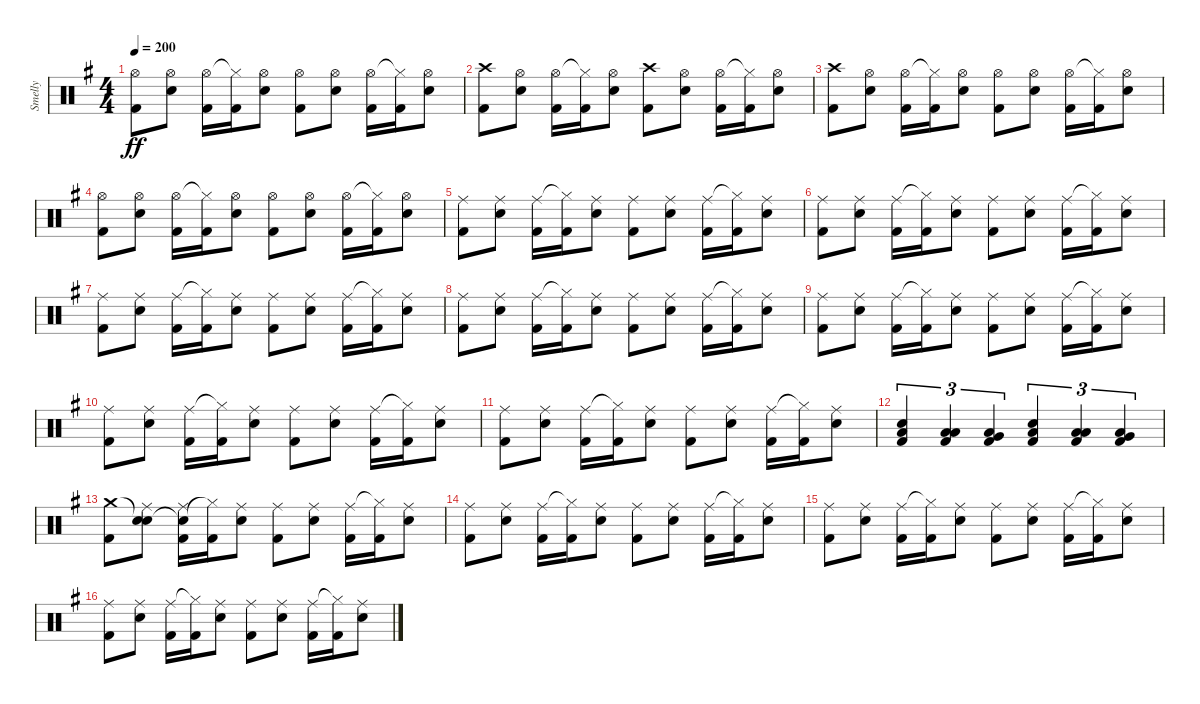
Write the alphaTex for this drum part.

\track ("Smelly" "Smelly") {instrument percussion}
\staff {score}
\articulation defaults
\ts (4 4)
\tempo 200
\clef neutral
\ks eminor
("Hi-Hat (open)" "Kick (hit) 2").8{dy ff} ("Hi-Hat (open)" "Electric Snare (hit)").8 ("Hi-Hat (open)" "Kick (hit) 2").16 ("Hi-Hat (closed)"{t} "Kick (hit) 2").16 ("Hi-Hat (open)" "Electric Snare (hit)").8 ("Hi-Hat (open)" "Kick (hit) 2").8 ("Hi-Hat (open)" "Electric Snare (hit)").8 ("Hi-Hat (open)" "Kick (hit) 2").16 ("Hi-Hat (closed)"{t} "Kick (hit) 2").16 ("Hi-Hat (open)" "Electric Snare (hit)").8 |
("Crash high (hit)" "Kick (hit) 2").8 ("Hi-Hat (open)" "Electric Snare (hit)").8 ("Hi-Hat (open)" "Kick (hit) 2").16 ("Hi-Hat (closed)"{t} "Kick (hit) 2").16 ("Hi-Hat (open)" "Electric Snare (hit)").8 ("Crash high (hit)" "Kick (hit) 2").8 ("Hi-Hat (open)" "Electric Snare (hit)").8 ("Hi-Hat (open)" "Kick (hit) 2").16 ("Hi-Hat (closed)"{t} "Kick (hit) 2").16 ("Hi-Hat (open)" "Electric Snare (hit)").8 |
("Crash high (hit)" "Kick (hit) 2").8 ("Hi-Hat (open)" "Electric Snare (hit)").8 ("Hi-Hat (open)" "Kick (hit) 2").16 ("Hi-Hat (closed)"{t} "Kick (hit) 2").16 ("Hi-Hat (open)" "Electric Snare (hit)").8 ("Hi-Hat (open)" "Kick (hit) 2").8 ("Hi-Hat (open)" "Electric Snare (hit)").8 ("Hi-Hat (open)" "Kick (hit) 2").16 ("Hi-Hat (closed)"{t} "Kick (hit) 2").16 ("Hi-Hat (open)" "Electric Snare (hit)").8 |
("Hi-Hat (open)" "Kick (hit) 2").8 ("Hi-Hat (open)" "Electric Snare (hit)").8 ("Hi-Hat (open)" "Kick (hit) 2").16 ("Hi-Hat (closed)"{t} "Kick (hit) 2").16 ("Hi-Hat (open)" "Electric Snare (hit)").8 ("Hi-Hat (open)" "Kick (hit) 2").8 ("Hi-Hat (open)" "Electric Snare (hit)").8 ("Hi-Hat (open)" "Kick (hit) 2").16 ("Hi-Hat (closed)"{t} "Kick (hit) 2").16 ("Hi-Hat (open)" "Electric Snare (hit)").8 |
("Ride (middle)" "Kick (hit) 2").8 ("Ride (middle)" "Electric Snare (hit)").8 ("Ride (middle)" "Kick (hit) 2").16 ("Hi-Hat (closed)"{t} "Kick (hit) 2").16 ("Ride (middle)" "Electric Snare (hit)").8 ("Ride (middle)" "Kick (hit) 2").8 ("Ride (middle)" "Electric Snare (hit)").8 ("Ride (middle)" "Kick (hit) 2").16 ("Hi-Hat (closed)"{t} "Kick (hit) 2").16 ("Ride (middle)" "Electric Snare (hit)").8 |
("Ride (middle)" "Kick (hit) 2").8 ("Ride (middle)" "Electric Snare (hit)").8 ("Ride (middle)" "Kick (hit) 2").16 ("Hi-Hat (closed)"{t} "Kick (hit) 2").16 ("Ride (middle)" "Electric Snare (hit)").8 ("Ride (middle)" "Kick (hit) 2").8 ("Ride (middle)" "Electric Snare (hit)").8 ("Ride (middle)" "Kick (hit) 2").16 ("Hi-Hat (closed)"{t} "Kick (hit) 2").16 ("Ride (middle)" "Electric Snare (hit)").8 |
("Ride (middle)" "Kick (hit) 2").8 ("Ride (middle)" "Electric Snare (hit)").8 ("Ride (middle)" "Kick (hit) 2").16 ("Hi-Hat (closed)"{t} "Kick (hit) 2").16 ("Ride (middle)" "Electric Snare (hit)").8 ("Ride (middle)" "Kick (hit) 2").8 ("Ride (middle)" "Electric Snare (hit)").8 ("Ride (middle)" "Kick (hit) 2").16 ("Hi-Hat (closed)"{t} "Kick (hit) 2").16 ("Ride (middle)" "Electric Snare (hit)").8 |
("Ride (middle)" "Kick (hit) 2").8 ("Ride (middle)" "Electric Snare (hit)").8 ("Ride (middle)" "Kick (hit) 2").16 ("Hi-Hat (closed)"{t} "Kick (hit) 2").16 ("Ride (middle)" "Electric Snare (hit)").8 ("Ride (middle)" "Kick (hit) 2").8 ("Ride (middle)" "Electric Snare (hit)").8 ("Ride (middle)" "Kick (hit) 2").16 ("Hi-Hat (closed)"{t} "Kick (hit) 2").16 ("Ride (middle)" "Electric Snare (hit)").8 |
("Ride (middle)" "Kick (hit) 2").8 ("Ride (middle)" "Electric Snare (hit)").8 ("Ride (middle)" "Kick (hit) 2").16 ("Hi-Hat (closed)"{t} "Kick (hit) 2").16 ("Ride (middle)" "Electric Snare (hit)").8 ("Ride (middle)" "Kick (hit) 2").8 ("Ride (middle)" "Electric Snare (hit)").8 ("Ride (middle)" "Kick (hit) 2").16 ("Hi-Hat (closed)"{t} "Kick (hit) 2").16 ("Ride (middle)" "Electric Snare (hit)").8 |
("Ride (middle)" "Kick (hit) 2").8 ("Ride (middle)" "Electric Snare (hit)").8 ("Ride (middle)" "Kick (hit) 2").16 ("Hi-Hat (closed)"{t} "Kick (hit) 2").16 ("Ride (middle)" "Electric Snare (hit)").8 ("Ride (middle)" "Kick (hit) 2").8 ("Ride (middle)" "Electric Snare (hit)").8 ("Ride (middle)" "Kick (hit) 2").16 ("Hi-Hat (closed)"{t} "Kick (hit) 2").16 ("Ride (middle)" "Electric Snare (hit)").8 |
("Ride (middle)" "Kick (hit) 2").8 ("Ride (middle)" "Electric Snare (hit)").8 ("Ride (middle)" "Kick (hit) 2").16 ("Hi-Hat (closed)"{t} "Kick (hit) 2").16 ("Ride (middle)" "Electric Snare (hit)").8 ("Ride (middle)" "Kick (hit) 2").8 ("Ride (middle)" "Electric Snare (hit)").8 ("Ride (middle)" "Kick (hit) 2").16 ("Hi-Hat (closed)"{t} "Kick (hit) 2").16 ("Ride (middle)" "Electric Snare (hit)").8 |
("Electric Snare (hit)" "Low Floor Tom (hit)" "Kick (hit) 2").4{tu (3 2)} ("Low Tom (hit)" "Low Floor Tom (hit)" "Kick (hit) 2").4{tu (3 2)} ("Very Low Tom (hit)" "Low Floor Tom (hit)" "Kick (hit) 2").4{tu (3 2)} ("Electric Snare (hit)" "Low Floor Tom (hit)" "Kick (hit) 2").4{tu (3 2)} ("Low Tom (hit)" "Low Floor Tom (hit)" "Kick (hit) 2").4{tu (3 2)} ("Very Low Tom (hit)" "Low Floor Tom (hit)" "Kick (hit) 2").4{tu (3 2)} |
("Crash medium (hit)" "Kick (hit) 2").8 ("Snare (hit)"{t} "Ride (middle)" "Electric Snare (hit)").8 ("Snare (hit)"{t} "Ride (middle)" "Kick (hit) 2").16 ("Hi-Hat (closed)"{t} "Kick (hit) 2").16 ("Ride (middle)" "Electric Snare (hit)").8 ("Ride (middle)" "Kick (hit) 2").8 ("Ride (middle)" "Electric Snare (hit)").8 ("Ride (middle)" "Kick (hit) 2").16 ("Hi-Hat (closed)"{t} "Kick (hit) 2").16 ("Ride (middle)" "Electric Snare (hit)").8 |
("Ride (middle)" "Kick (hit) 2").8 ("Ride (middle)" "Electric Snare (hit)").8 ("Ride (middle)" "Kick (hit) 2").16 ("Hi-Hat (closed)"{t} "Kick (hit) 2").16 ("Ride (middle)" "Electric Snare (hit)").8 ("Ride (middle)" "Kick (hit) 2").8 ("Ride (middle)" "Electric Snare (hit)").8 ("Ride (middle)" "Kick (hit) 2").16 ("Hi-Hat (closed)"{t} "Kick (hit) 2").16 ("Ride (middle)" "Electric Snare (hit)").8 |
("Ride (middle)" "Kick (hit) 2").8 ("Ride (middle)" "Electric Snare (hit)").8 ("Ride (middle)" "Kick (hit) 2").16 ("Hi-Hat (closed)"{t} "Kick (hit) 2").16 ("Ride (middle)" "Electric Snare (hit)").8 ("Ride (middle)" "Kick (hit) 2").8 ("Ride (middle)" "Electric Snare (hit)").8 ("Ride (middle)" "Kick (hit) 2").16 ("Hi-Hat (closed)"{t} "Kick (hit) 2").16 ("Ride (middle)" "Electric Snare (hit)").8 |
("Ride (middle)" "Kick (hit) 2").8 ("Ride (middle)" "Electric Snare (hit)").8 ("Ride (middle)" "Kick (hit) 2").16 ("Hi-Hat (closed)"{t} "Kick (hit) 2").16 ("Ride (middle)" "Electric Snare (hit)").8 ("Ride (middle)" "Kick (hit) 2").8 ("Ride (middle)" "Electric Snare (hit)").8 ("Ride (middle)" "Kick (hit) 2").16 ("Hi-Hat (closed)"{t} "Kick (hit) 2").16 ("Ride (middle)" "Electric Snare (hit)").8
